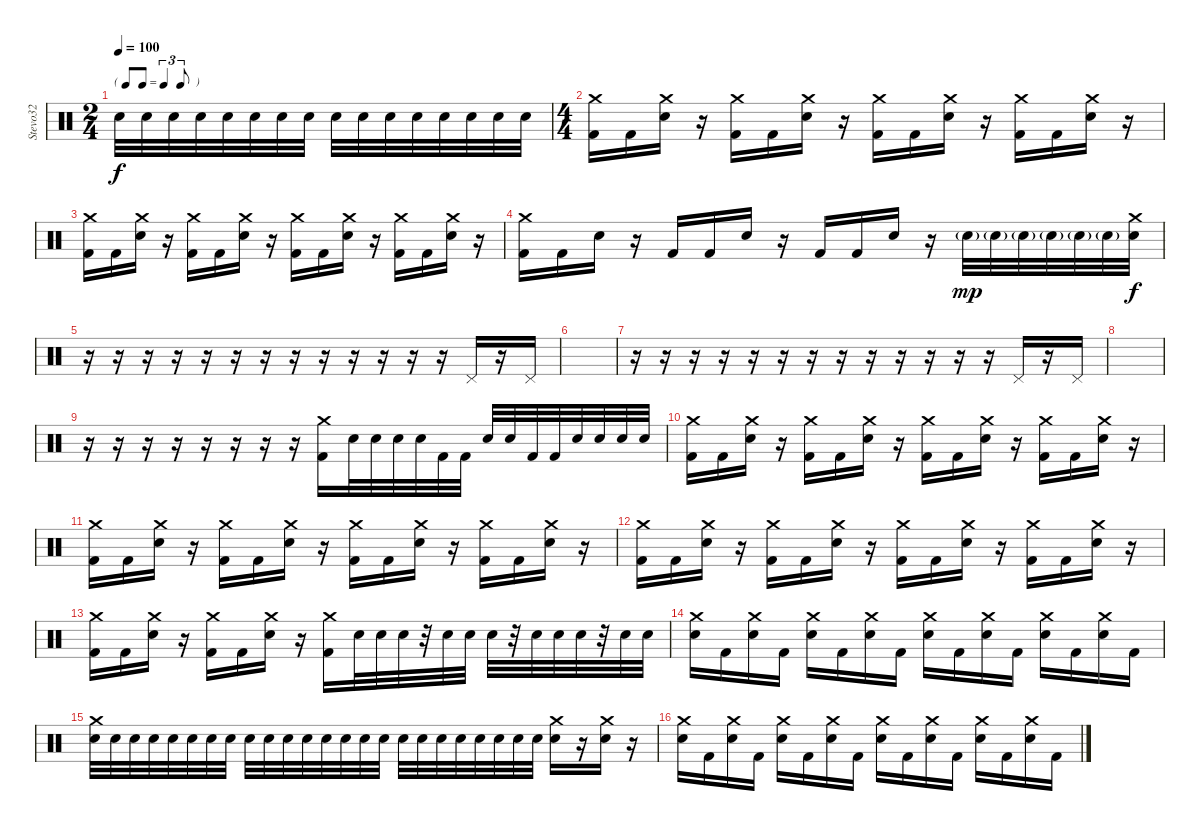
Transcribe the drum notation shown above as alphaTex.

\track ("Stevo32" "Stevo32") {instrument percussion}
\staff {score}
\articulation defaults
\ts (2 4)
\tf triplet8th
\tempo 100
\clef neutral
\ks c "Electric Snare (hit)".32{dy f} "Electric Snare (hit)".32 "Electric Snare (hit)".32 "Electric Snare (hit)".32 "Electric Snare (hit)".32 "Electric Snare (hit)".32 "Electric Snare (hit)".32 "Electric Snare (hit)".32 "Electric Snare (hit)".32 "Electric Snare (hit)".32 "Electric Snare (hit)".32 "Electric Snare (hit)".32 "Electric Snare (hit)".32 "Electric Snare (hit)".32 "Electric Snare (hit)".32 "Electric Snare (hit)".32
|
\ts (4 4)
("Crash medium (hit)" "Kick (hit) 2").16 "Kick (hit) 2".16 ("Crash medium (hit)" "Electric Snare (hit)").16 r.16 ("Crash medium (hit)" "Kick (hit) 2").16 "Kick (hit) 2".16 ("Crash medium (hit)" "Electric Snare (hit)").16 r.16 ("Crash medium (hit)" "Kick (hit) 2").16 "Kick (hit) 2".16 ("Crash medium (hit)" "Electric Snare (hit)").16 r.16 ("Crash medium (hit)" "Kick (hit) 2").16 "Kick (hit) 2".16 ("Crash medium (hit)" "Electric Snare (hit)").16 r.16 |
("Crash medium (hit)" "Kick (hit) 2").16 "Kick (hit) 2".16 ("Crash medium (hit)" "Electric Snare (hit)").16 r.16 ("Crash medium (hit)" "Kick (hit) 2").16 "Kick (hit) 2".16 ("Crash medium (hit)" "Electric Snare (hit)").16 r.16 ("Crash medium (hit)" "Kick (hit) 2").16 "Kick (hit) 2".16 ("Crash medium (hit)" "Electric Snare (hit)").16 r.16 ("Crash medium (hit)" "Kick (hit) 2").16 "Kick (hit) 2".16 ("Crash medium (hit)" "Electric Snare (hit)").16 r.16 |
("Crash medium (hit)" "Kick (hit) 2").16 "Kick (hit) 2".16 "Electric Snare (hit)".16 r.16 "Kick (hit) 2".16 "Kick (hit) 2".16 "Electric Snare (hit)".16 r.16 "Kick (hit) 2".16 "Kick (hit) 2".16 "Electric Snare (hit)".16 r.16 "Electric Snare (hit)"{g}.32{dy mp} "Electric Snare (hit)"{g}.32 "Electric Snare (hit)"{g}.32 "Electric Snare (hit)"{g}.32 "Electric Snare (hit)"{g}.32 "Electric Snare (hit)"{g}.32 ("Crash medium (hit)" "Electric Snare (hit)").32{dy f} |
r.16 r.16 r.16 r.16 r.16 r.16 r.16 r.16 r.16 r.16 r.16 r.16 r.16 "Pedal Hi-Hat (hit)".16 r.16 "Pedal Hi-Hat (hit)".16 |
|
r.16 r.16 r.16 r.16 r.16 r.16 r.16 r.16 r.16 r.16 r.16 r.16 r.16 "Pedal Hi-Hat (hit)".16 r.16 "Pedal Hi-Hat (hit)".16 |
|
r.16 r.16 r.16 r.16 r.16 r.16 r.16 r.16 ("Crash medium (hit)" "Kick (hit) 2").16 "Electric Snare (hit)".32 "Electric Snare (hit)".32 "Electric Snare (hit)".32 "Electric Snare (hit)".32 "Kick (hit) 2".32 "Kick (hit) 2".32 "Electric Snare (hit)".32 "Electric Snare (hit)".32 "Kick (hit) 2".32 "Kick (hit) 2".32 "Electric Snare (hit)".32 "Electric Snare (hit)".32 "Electric Snare (hit)".32 "Electric Snare (hit)".32 |
("Crash medium (hit)" "Kick (hit) 2").16 "Kick (hit) 2".16 ("Crash medium (hit)" "Electric Snare (hit)").16 r.16 ("Crash medium (hit)" "Kick (hit) 2").16 "Kick (hit) 2".16 ("Crash medium (hit)" "Electric Snare (hit)").16 r.16 ("Crash medium (hit)" "Kick (hit) 2").16 "Kick (hit) 2".16 ("Crash medium (hit)" "Electric Snare (hit)").16 r.16 ("Crash medium (hit)" "Kick (hit) 2").16 "Kick (hit) 2".16 ("Crash medium (hit)" "Electric Snare (hit)").16 r.16 |
("Crash medium (hit)" "Kick (hit) 2").16 "Kick (hit) 2".16 ("Crash medium (hit)" "Electric Snare (hit)").16 r.16 ("Crash medium (hit)" "Kick (hit) 2").16 "Kick (hit) 2".16 ("Crash medium (hit)" "Electric Snare (hit)").16 r.16 ("Crash medium (hit)" "Kick (hit) 2").16 "Kick (hit) 2".16 ("Crash medium (hit)" "Electric Snare (hit)").16 r.16 ("Crash medium (hit)" "Kick (hit) 2").16 "Kick (hit) 2".16 ("Crash medium (hit)" "Electric Snare (hit)").16 r.16 |
("Crash medium (hit)" "Kick (hit) 2").16 "Kick (hit) 2".16 ("Crash medium (hit)" "Electric Snare (hit)").16 r.16 ("Crash medium (hit)" "Kick (hit) 2").16 "Kick (hit) 2".16 ("Crash medium (hit)" "Electric Snare (hit)").16 r.16 ("Crash medium (hit)" "Kick (hit) 2").16 "Kick (hit) 2".16 ("Crash medium (hit)" "Electric Snare (hit)").16 r.16 ("Crash medium (hit)" "Kick (hit) 2").16 "Kick (hit) 2".16 ("Crash medium (hit)" "Electric Snare (hit)").16 r.16 |
("Crash medium (hit)" "Kick (hit) 2").16 "Kick (hit) 2".16 ("Crash medium (hit)" "Electric Snare (hit)").16 r.16 ("Crash medium (hit)" "Kick (hit) 2").16 "Kick (hit) 2".16 ("Crash medium (hit)" "Electric Snare (hit)").16 r.16 ("Crash medium (hit)" "Kick (hit) 2").16 "Electric Snare (hit)".32 "Electric Snare (hit)".32 "Electric Snare (hit)".32 r.32 "Electric Snare (hit)".32 "Electric Snare (hit)".32 "Electric Snare (hit)".32 r.32 "Electric Snare (hit)".32 "Electric Snare (hit)".32 "Electric Snare (hit)".32 r.32 "Electric Snare (hit)".32 "Electric Snare (hit)".32 |
("Crash medium (hit)" "Electric Snare (hit)").16 "Kick (hit) 2".16 ("Crash medium (hit)" "Electric Snare (hit)").16 "Kick (hit) 2".16 ("Crash medium (hit)" "Electric Snare (hit)").16 "Kick (hit) 2".16 ("Crash medium (hit)" "Electric Snare (hit)").16 "Kick (hit) 2".16 ("Crash medium (hit)" "Electric Snare (hit)").16 "Kick (hit) 2".16 ("Crash medium (hit)" "Electric Snare (hit)").16 "Kick (hit) 2".16 ("Crash medium (hit)" "Electric Snare (hit)").16 "Kick (hit) 2".16 ("Crash medium (hit)" "Electric Snare (hit)").16 "Kick (hit) 2".16 |
("Crash medium (hit)" "Electric Snare (hit)").32 "Electric Snare (hit)".32 "Electric Snare (hit)".32 "Electric Snare (hit)".32 "Electric Snare (hit)".32 "Electric Snare (hit)".32 "Electric Snare (hit)".32 "Electric Snare (hit)".32 "Electric Snare (hit)".32 "Electric Snare (hit)".32 "Electric Snare (hit)".32 "Electric Snare (hit)".32 "Electric Snare (hit)".32 "Electric Snare (hit)".32 "Electric Snare (hit)".32 "Electric Snare (hit)".32 "Electric Snare (hit)".32 "Electric Snare (hit)".32 "Electric Snare (hit)".32 "Electric Snare (hit)".32 "Electric Snare (hit)".32 "Electric Snare (hit)".32 "Electric Snare (hit)".32 "Electric Snare (hit)".32 ("Crash medium (hit)" "Electric Snare (hit)").16 r.16 ("Crash medium (hit)" "Electric Snare (hit)").16 r.16 |
("Crash medium (hit)" "Electric Snare (hit)").16 "Kick (hit) 2".16 ("Crash medium (hit)" "Electric Snare (hit)").16 "Kick (hit) 2".16 ("Crash medium (hit)" "Electric Snare (hit)").16 "Kick (hit) 2".16 ("Crash medium (hit)" "Electric Snare (hit)").16 "Kick (hit) 2".16 ("Crash medium (hit)" "Electric Snare (hit)").16 "Kick (hit) 2".16 ("Crash medium (hit)" "Electric Snare (hit)").16 "Kick (hit) 2".16 ("Crash medium (hit)" "Electric Snare (hit)").16 "Kick (hit) 2".16 ("Crash medium (hit)" "Electric Snare (hit)").16 "Kick (hit) 2".16
